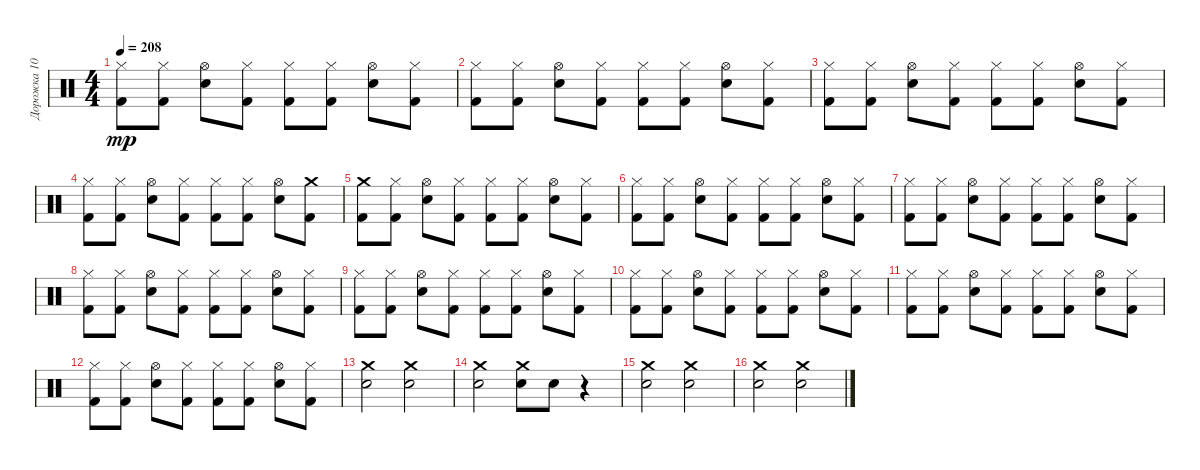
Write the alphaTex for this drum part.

\track ("Дорожка 10" "Дорожка 10") {instrument percussion}
\staff {score}
\articulation defaults
\ts (4 4)
\tempo 208
\clef neutral
\ks c
("Kick (hit) 2" "Hi-Hat (closed)").8{dy mp} ("Kick (hit) 2" "Hi-Hat (closed)").8 ("Snare (hit) 2" "Hi-Hat (open)").8 ("Kick (hit) 2" "Hi-Hat (closed)").8 ("Kick (hit) 2" "Hi-Hat (closed)").8 ("Kick (hit) 2" "Hi-Hat (closed)").8 ("Snare (hit) 2" "Hi-Hat (open)").8 ("Kick (hit) 2" "Hi-Hat (closed)").8 |
("Kick (hit) 2" "Hi-Hat (closed)").8 ("Kick (hit) 2" "Hi-Hat (closed)").8 ("Snare (hit) 2" "Hi-Hat (open)").8 ("Kick (hit) 2" "Hi-Hat (closed)").8 ("Kick (hit) 2" "Hi-Hat (closed)").8 ("Kick (hit) 2" "Hi-Hat (closed)").8 ("Snare (hit) 2" "Hi-Hat (open)").8 ("Kick (hit) 2" "Hi-Hat (closed)").8 |
("Kick (hit) 2" "Hi-Hat (closed)").8 ("Kick (hit) 2" "Hi-Hat (closed)").8 ("Snare (hit) 2" "Hi-Hat (open)").8 ("Kick (hit) 2" "Hi-Hat (closed)").8 ("Kick (hit) 2" "Hi-Hat (closed)").8 ("Kick (hit) 2" "Hi-Hat (closed)").8 ("Snare (hit) 2" "Hi-Hat (open)").8 ("Kick (hit) 2" "Hi-Hat (closed)").8 |
("Kick (hit) 2" "Hi-Hat (closed)").8 ("Kick (hit) 2" "Hi-Hat (closed)").8 ("Snare (hit) 2" "Hi-Hat (open)").8 ("Kick (hit) 2" "Hi-Hat (closed)").8 ("Kick (hit) 2" "Hi-Hat (closed)").8 ("Kick (hit) 2" "Hi-Hat (closed)").8 ("Snare (hit) 2" "Hi-Hat (open)").8 ("Kick (hit) 2" "Crash medium (hit)").8 |
("Kick (hit) 2" "Crash medium (hit)").8 ("Kick (hit) 2" "Hi-Hat (closed)").8 ("Snare (hit) 2" "Hi-Hat (open)").8 ("Kick (hit) 2" "Hi-Hat (closed)").8 ("Kick (hit) 2" "Hi-Hat (closed)").8 ("Kick (hit) 2" "Hi-Hat (closed)").8 ("Snare (hit) 2" "Hi-Hat (open)").8 ("Kick (hit) 2" "Hi-Hat (closed)").8 |
("Kick (hit) 2" "Hi-Hat (closed)").8 ("Kick (hit) 2" "Hi-Hat (closed)").8 ("Snare (hit) 2" "Hi-Hat (open)").8 ("Kick (hit) 2" "Hi-Hat (closed)").8 ("Kick (hit) 2" "Hi-Hat (closed)").8 ("Kick (hit) 2" "Hi-Hat (closed)").8 ("Snare (hit) 2" "Hi-Hat (open)").8 ("Kick (hit) 2" "Hi-Hat (closed)").8 |
("Kick (hit) 2" "Hi-Hat (closed)").8 ("Kick (hit) 2" "Hi-Hat (closed)").8 ("Snare (hit) 2" "Hi-Hat (open)").8 ("Kick (hit) 2" "Hi-Hat (closed)").8 ("Kick (hit) 2" "Hi-Hat (closed)").8 ("Kick (hit) 2" "Hi-Hat (closed)").8 ("Snare (hit) 2" "Hi-Hat (open)").8 ("Kick (hit) 2" "Hi-Hat (closed)").8 |
("Kick (hit) 2" "Hi-Hat (closed)").8 ("Kick (hit) 2" "Hi-Hat (closed)").8 ("Snare (hit) 2" "Hi-Hat (open)").8 ("Kick (hit) 2" "Hi-Hat (closed)").8 ("Kick (hit) 2" "Hi-Hat (closed)").8 ("Kick (hit) 2" "Hi-Hat (closed)").8 ("Snare (hit) 2" "Hi-Hat (open)").8 ("Kick (hit) 2" "Hi-Hat (closed)").8 |
("Kick (hit) 2" "Hi-Hat (closed)").8 ("Kick (hit) 2" "Hi-Hat (closed)").8 ("Snare (hit) 2" "Hi-Hat (open)").8 ("Kick (hit) 2" "Hi-Hat (closed)").8 ("Kick (hit) 2" "Hi-Hat (closed)").8 ("Kick (hit) 2" "Hi-Hat (closed)").8 ("Snare (hit) 2" "Hi-Hat (open)").8 ("Kick (hit) 2" "Hi-Hat (closed)").8 |
("Kick (hit) 2" "Hi-Hat (closed)").8 ("Kick (hit) 2" "Hi-Hat (closed)").8 ("Snare (hit) 2" "Hi-Hat (open)").8 ("Kick (hit) 2" "Hi-Hat (closed)").8 ("Kick (hit) 2" "Hi-Hat (closed)").8 ("Kick (hit) 2" "Hi-Hat (closed)").8 ("Snare (hit) 2" "Hi-Hat (open)").8 ("Kick (hit) 2" "Hi-Hat (closed)").8 |
("Kick (hit) 2" "Hi-Hat (closed)").8 ("Kick (hit) 2" "Hi-Hat (closed)").8 ("Snare (hit) 2" "Hi-Hat (open)").8 ("Kick (hit) 2" "Hi-Hat (closed)").8 ("Kick (hit) 2" "Hi-Hat (closed)").8 ("Kick (hit) 2" "Hi-Hat (closed)").8 ("Snare (hit) 2" "Hi-Hat (open)").8 ("Kick (hit) 2" "Hi-Hat (closed)").8 |
("Kick (hit) 2" "Hi-Hat (closed)").8 ("Kick (hit) 2" "Hi-Hat (closed)").8 ("Snare (hit) 2" "Hi-Hat (open)").8 ("Kick (hit) 2" "Hi-Hat (closed)").8 ("Kick (hit) 2" "Hi-Hat (closed)").8 ("Kick (hit) 2" "Hi-Hat (closed)").8 ("Snare (hit) 2" "Hi-Hat (open)").8 ("Kick (hit) 2" "Hi-Hat (closed)").8 |
("Snare (hit) 2" "Crash medium (hit)").2 ("Snare (hit) 2" "Crash medium (hit)").2 |
("Snare (hit) 2" "Crash medium (hit)").2 ("Snare (hit) 2" "Crash medium (hit)").8 "Snare (hit) 2".8 r.4 |
("Snare (hit) 2" "Crash medium (hit)").2 ("Snare (hit) 2" "Crash medium (hit)").2 |
("Snare (hit) 2" "Crash medium (hit)").2 ("Snare (hit) 2" "Crash medium (hit)").2
